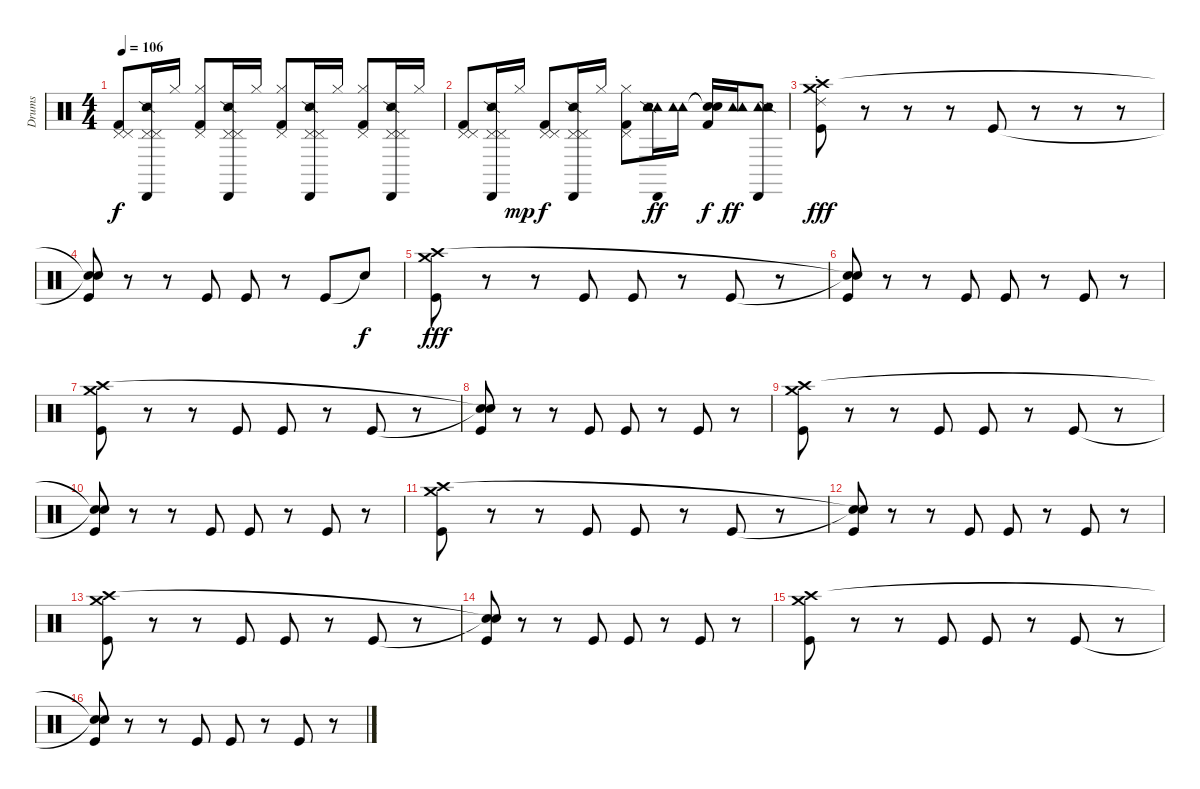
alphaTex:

\track ("Drums" "Drums") {instrument percussion}
\staff {score}
\articulation defaults
\ts (4 4)
\tempo 106
\clef neutral
\ks c
("Pedal Hi-Hat (hit)" "Pedal Hi-Hat (hit)" "Kick (hit) 2").8{dy f} ("Pedal Hi-Hat (hit)" "Pedal Hi-Hat (hit)" "Snare (side stick) 2" "Cabasa (hit)").16 "Hi-Hat (closed)".16 ("Pedal Hi-Hat (hit)" "Hi-Hat (closed)" "Kick (hit) 2").8 ("Pedal Hi-Hat (hit)" "Pedal Hi-Hat (hit)" "Snare (side stick) 2" "Cabasa (hit)").16 "Hi-Hat (closed)".16 ("Pedal Hi-Hat (hit)" "Hi-Hat (closed)" "Kick (hit) 2").8 ("Pedal Hi-Hat (hit)" "Pedal Hi-Hat (hit)" "Snare (side stick) 2" "Cabasa (hit)").16 "Hi-Hat (closed)".16 ("Pedal Hi-Hat (hit)" "Hi-Hat (closed)" "Kick (hit) 2").8 ("Pedal Hi-Hat (hit)" "Pedal Hi-Hat (hit)" "Snare (side stick) 2" "Cabasa (hit)").16 "Hi-Hat (closed)".16 |
("Pedal Hi-Hat (hit)" "Pedal Hi-Hat (hit)" "Kick (hit) 2").8 ("Pedal Hi-Hat (hit)" "Pedal Hi-Hat (hit)" "Snare (side stick) 2" "Cabasa (hit)").16 "Hi-Hat (closed)".16{dy mp} ("Pedal Hi-Hat (hit)" "Pedal Hi-Hat (hit)" "Kick (hit) 2").8{dy f} ("Pedal Hi-Hat (hit)" "Pedal Hi-Hat (hit)" "Snare (side stick) 2" "Cabasa (hit)").16 "Hi-Hat (closed)".16 ("Pedal Hi-Hat (hit)" "Hi-Hat (closed)" "Kick (hit) 2").8 ("Tambourine (hit)" "Tambourine (hit)" "Snare (side stick) 2" "Cabasa (hit)").16{dy ff} ("Tambourine (hit)" "Tambourine (hit)").16 ("Snare (hit)"{t} "Snare (hit)"{t} "Kick (hit) 2").16{dy f} ("Tambourine (hit)" "Tambourine (hit)").16{dy ff} ("Tambourine (hit)" "Tambourine (hit)" "Snare (side stick) 2" "Cabasa (hit)").8 |
("Crash medium (hit)" "Crash high (hit)" "Kick (hit)" "Ride (choke) 2").8{dy fff} r.8 r.8 r.8 "Kick (hit)".8 r.8 r.8 r.8 |
("Snare (hit)"{t} "Snare (hit)"{t} "Kick (hit)").8 r.8 r.8 "Kick (hit)".8 "Kick (hit)".8 r.8 "Kick (hit)".8 "Snare (hit)"{t}.8{dy f} |
("Crash medium (hit)" "Crash high (hit)" "Kick (hit)").8{dy fff} r.8 r.8 "Kick (hit)".8 "Kick (hit)".8 r.8 "Kick (hit)".8 r.8 |
("Snare (hit)"{t} "Snare (hit)"{t} "Kick (hit)").8 r.8 r.8 "Kick (hit)".8 "Kick (hit)".8 r.8 "Kick (hit)".8 r.8 |
("Crash medium (hit)" "Crash high (hit)" "Kick (hit)").8 r.8 r.8 "Kick (hit)".8 "Kick (hit)".8 r.8 "Kick (hit)".8 r.8 |
("Snare (hit)"{t} "Snare (hit)"{t} "Kick (hit)").8 r.8 r.8 "Kick (hit)".8 "Kick (hit)".8 r.8 "Kick (hit)".8 r.8 |
("Crash medium (hit)" "Crash high (hit)" "Kick (hit)").8 r.8 r.8 "Kick (hit)".8 "Kick (hit)".8 r.8 "Kick (hit)".8 r.8 |
("Snare (hit)"{t} "Snare (hit)"{t} "Kick (hit)").8 r.8 r.8 "Kick (hit)".8 "Kick (hit)".8 r.8 "Kick (hit)".8 r.8 |
("Crash medium (hit)" "Crash high (hit)" "Kick (hit)").8 r.8 r.8 "Kick (hit)".8 "Kick (hit)".8 r.8 "Kick (hit)".8 r.8 |
("Snare (hit)"{t} "Snare (hit)"{t} "Kick (hit)").8 r.8 r.8 "Kick (hit)".8 "Kick (hit)".8 r.8 "Kick (hit)".8 r.8 |
("Crash medium (hit)" "Crash high (hit)" "Kick (hit)").8 r.8 r.8 "Kick (hit)".8 "Kick (hit)".8 r.8 "Kick (hit)".8 r.8 |
("Snare (hit)"{t} "Snare (hit)"{t} "Kick (hit)").8 r.8 r.8 "Kick (hit)".8 "Kick (hit)".8 r.8 "Kick (hit)".8 r.8 |
("Crash medium (hit)" "Crash high (hit)" "Kick (hit)").8 r.8 r.8 "Kick (hit)".8 "Kick (hit)".8 r.8 "Kick (hit)".8 r.8 |
("Snare (hit)"{t} "Snare (hit)"{t} "Kick (hit)").8 r.8 r.8 "Kick (hit)".8 "Kick (hit)".8 r.8 "Kick (hit)".8 r.8
